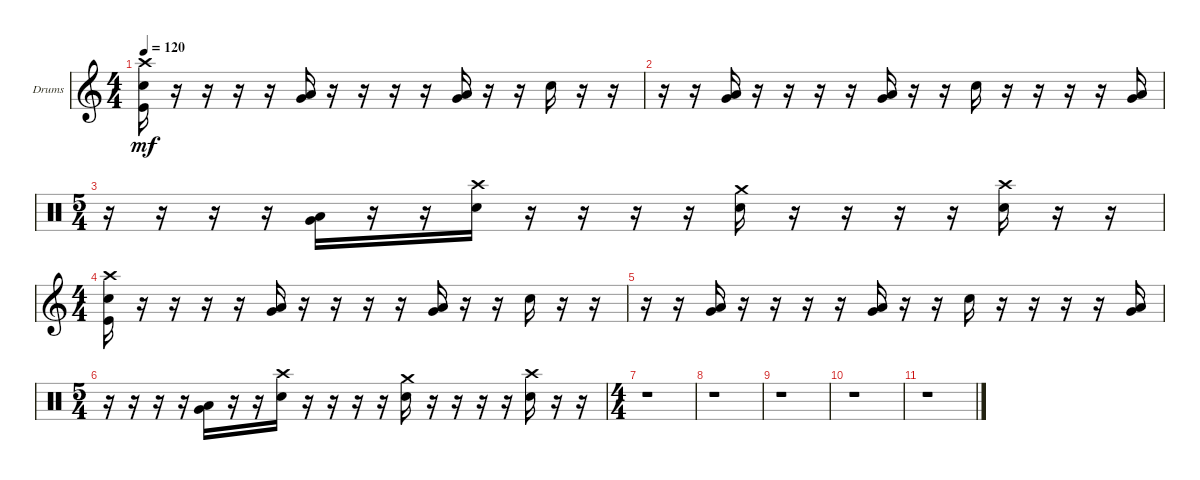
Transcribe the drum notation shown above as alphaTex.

\bracketExtendMode groupsimilarinstruments
\firstSystemTrackNameOrientation horizontal
\otherSystemsTrackNameOrientation horizontal
\track ("Drums" "Drums") {instrument percussion}
\staff {score}
\articulation defaults
\ts (4 4)
\tempo 120
\clef g2
\ks c
("Kick (hit)" "Snare (hit) 2" "Crash high (hit)").16{dy mf} r.16 r.16 r.16 r.16 ("Very Low Tom (hit)" "Low Tom (hit)").16 r.16 r.16 r.16 r.16 ("Very Low Tom (hit)" "Low Tom (hit)").16 r.16 r.16 "Snare (hit) 2".16 r.16 r.16 |
r.16 r.16 ("Very Low Tom (hit)" "Low Tom (hit)").16 r.16 r.16 r.16 r.16 ("Very Low Tom (hit)" "Low Tom (hit)").16 r.16 r.16 "Snare (hit) 2".16 r.16 r.16 r.16 r.16 ("Very Low Tom (hit)" "Low Tom (hit)").16 |
\ts (5 4)
\clef neutral
r.16 r.16 r.16 r.16 ("Very Low Tom (hit)" "Low Tom (hit)").16 r.16 r.16 ("Snare (hit) 2" "Crash high (hit)").16 r.16 r.16 r.16 r.16 ("Snare (hit) 2" "Crash medium (hit)").16 r.16 r.16 r.16 r.16 ("Snare (hit) 2" "Crash high (hit)").16 r.16 r.16 |
\ts (4 4)
\clef g2
("Kick (hit)" "Snare (hit) 2" "Crash high (hit)").16 r.16 r.16 r.16 r.16 ("Very Low Tom (hit)" "Low Tom (hit)").16 r.16 r.16 r.16 r.16 ("Very Low Tom (hit)" "Low Tom (hit)").16 r.16 r.16 "Snare (hit) 2".16 r.16 r.16 |
r.16 r.16 ("Very Low Tom (hit)" "Low Tom (hit)").16 r.16 r.16 r.16 r.16 ("Very Low Tom (hit)" "Low Tom (hit)").16 r.16 r.16 "Snare (hit) 2".16 r.16 r.16 r.16 r.16 ("Very Low Tom (hit)" "Low Tom (hit)").16 |
\ts (5 4)
\clef neutral
r.16 r.16 r.16 r.16 ("Very Low Tom (hit)" "Low Tom (hit)").16 r.16 r.16 ("Snare (hit) 2" "Crash high (hit)").16 r.16 r.16 r.16 r.16 ("Snare (hit) 2" "Crash medium (hit)").16 r.16 r.16 r.16 r.16 ("Snare (hit) 2" "Crash high (hit)").16 r.16 r.16 |
\ts (4 4)
r.1 |
r.1 |
r.1 |
r.1 |
r.1
